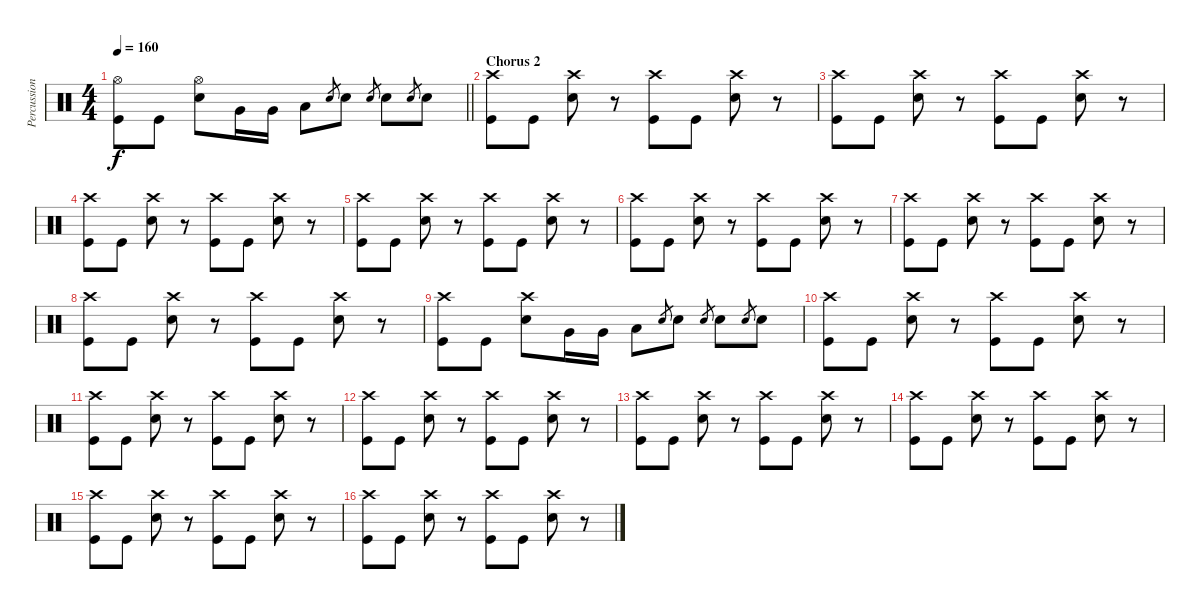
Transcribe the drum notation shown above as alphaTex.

\track ("Percussion" "Percussion") {instrument percussion}
\staff {score}
\articulation defaults
\ts (4 4)
\tempo 160
\clef neutral
\barLineRight lightlight
\ks c
("Hi-Hat (open)" "Kick (hit)").8{dy f} "Kick (hit)".8 ("Hi-Hat (open)" "Electric Snare (hit)").8 "Very Low Tom (hit)".16 "Very Low Tom (hit)".16 "Low Floor Tom (hit)".8 "Electric Snare (hit)".8{gr} "Electric Snare (hit)".8 "Electric Snare (hit)".8{gr} "Electric Snare (hit)".8 "Electric Snare (hit)".8{gr} "Electric Snare (hit)".8 |
\section ("" "Chorus 2 ")
("Crash high (hit)" "Kick (hit)").8 "Kick (hit)".8 ("Crash high (hit)" "Electric Snare (hit)").8 r.8 ("Crash high (hit)" "Kick (hit)").8 "Kick (hit)".8 ("Crash high (hit)" "Electric Snare (hit)").8 r.8 |
("Crash high (hit)" "Kick (hit)").8 "Kick (hit)".8 ("Crash high (hit)" "Electric Snare (hit)").8 r.8 ("Crash high (hit)" "Kick (hit)").8 "Kick (hit)".8 ("Crash high (hit)" "Electric Snare (hit)").8 r.8 |
("Crash high (hit)" "Kick (hit)").8 "Kick (hit)".8 ("Crash high (hit)" "Electric Snare (hit)").8 r.8 ("Crash high (hit)" "Kick (hit)").8 "Kick (hit)".8 ("Crash high (hit)" "Electric Snare (hit)").8 r.8 |
("Crash high (hit)" "Kick (hit)").8 "Kick (hit)".8 ("Crash high (hit)" "Electric Snare (hit)").8 r.8 ("Crash high (hit)" "Kick (hit)").8 "Kick (hit)".8 ("Crash high (hit)" "Electric Snare (hit)").8 r.8 |
("Crash high (hit)" "Kick (hit)").8 "Kick (hit)".8 ("Crash high (hit)" "Electric Snare (hit)").8 r.8 ("Crash high (hit)" "Kick (hit)").8 "Kick (hit)".8 ("Crash high (hit)" "Electric Snare (hit)").8 r.8 |
("Crash high (hit)" "Kick (hit)").8 "Kick (hit)".8 ("Crash high (hit)" "Electric Snare (hit)").8 r.8 ("Crash high (hit)" "Kick (hit)").8 "Kick (hit)".8 ("Crash high (hit)" "Electric Snare (hit)").8 r.8 |
("Crash high (hit)" "Kick (hit)").8 "Kick (hit)".8 ("Crash high (hit)" "Electric Snare (hit)").8 r.8 ("Crash high (hit)" "Kick (hit)").8 "Kick (hit)".8 ("Crash high (hit)" "Electric Snare (hit)").8 r.8 |
("Crash high (hit)" "Kick (hit)").8 "Kick (hit)".8 ("Crash high (hit)" "Electric Snare (hit)").8 "Very Low Tom (hit)".16 "Very Low Tom (hit)".16 "Low Floor Tom (hit)".8 "Electric Snare (hit)".8{gr} "Electric Snare (hit)".8 "Electric Snare (hit)".8{gr} "Electric Snare (hit)".8 "Electric Snare (hit)".8{gr} "Electric Snare (hit)".8 |
("Crash high (hit)" "Kick (hit)").8 "Kick (hit)".8 ("Crash high (hit)" "Electric Snare (hit)").8 r.8 ("Crash high (hit)" "Kick (hit)").8 "Kick (hit)".8 ("Crash high (hit)" "Electric Snare (hit)").8 r.8 |
("Crash high (hit)" "Kick (hit)").8 "Kick (hit)".8 ("Crash high (hit)" "Electric Snare (hit)").8 r.8 ("Crash high (hit)" "Kick (hit)").8 "Kick (hit)".8 ("Crash high (hit)" "Electric Snare (hit)").8 r.8 |
("Crash high (hit)" "Kick (hit)").8 "Kick (hit)".8 ("Crash high (hit)" "Electric Snare (hit)").8 r.8 ("Crash high (hit)" "Kick (hit)").8 "Kick (hit)".8 ("Crash high (hit)" "Electric Snare (hit)").8 r.8 |
("Crash high (hit)" "Kick (hit)").8 "Kick (hit)".8 ("Crash high (hit)" "Electric Snare (hit)").8 r.8 ("Crash high (hit)" "Kick (hit)").8 "Kick (hit)".8 ("Crash high (hit)" "Electric Snare (hit)").8 r.8 |
("Crash high (hit)" "Kick (hit)").8 "Kick (hit)".8 ("Crash high (hit)" "Electric Snare (hit)").8 r.8 ("Crash high (hit)" "Kick (hit)").8 "Kick (hit)".8 ("Crash high (hit)" "Electric Snare (hit)").8 r.8 |
("Crash high (hit)" "Kick (hit)").8 "Kick (hit)".8 ("Crash high (hit)" "Electric Snare (hit)").8 r.8 ("Crash high (hit)" "Kick (hit)").8 "Kick (hit)".8 ("Crash high (hit)" "Electric Snare (hit)").8 r.8 |
("Crash high (hit)" "Kick (hit)").8 "Kick (hit)".8 ("Crash high (hit)" "Electric Snare (hit)").8 r.8 ("Crash high (hit)" "Kick (hit)").8 "Kick (hit)".8 ("Crash high (hit)" "Electric Snare (hit)").8 r.8
